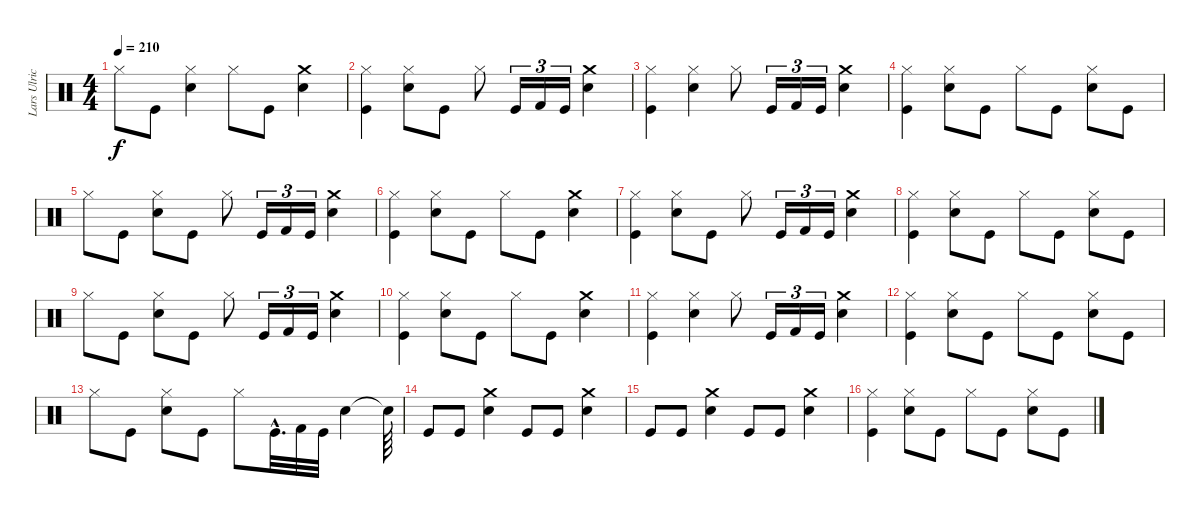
\track ("Lars Ulrich (Drums)" "Lars Ulric") {instrument percussion}
\staff {score}
\articulation defaults
\ts (4 4)
\tempo 210
\clef neutral
\ks c "Hi-Hat (closed)".8{dy f} "Kick (hit)".8
("Snare (hit) 2" "Hi-Hat (closed)").4 "Hi-Hat (closed)".8 "Kick (hit)".8 ("Crash medium (hit)" "Snare (hit) 2").4 |
("Kick (hit)" "Hi-Hat (closed)").4 ("Snare (hit) 2" "Hi-Hat (closed)").8 "Kick (hit)".8 "Hi-Hat (closed)".8 "Kick (hit)".16{tu (3 2)} "Kick (hit) 2".16{tu (3 2)} "Kick (hit)".16{tu (3 2)} ("Crash medium (hit)" "Snare (hit) 2").4 |
("Hi-Hat (closed)" "Kick (hit)").4 ("Snare (hit) 2" "Hi-Hat (closed)").4 "Hi-Hat (closed)".8 "Kick (hit)".16{tu (3 2)} "Kick (hit) 2".16{tu (3 2)} "Kick (hit)".16{tu (3 2)} ("Crash medium (hit)" "Snare (hit) 2").4 |
("Hi-Hat (closed)" "Kick (hit)").4 ("Snare (hit) 2" "Hi-Hat (closed)").8 "Kick (hit)".8 "Hi-Hat (closed)".8 "Kick (hit)".8 ("Snare (hit) 2" "Hi-Hat (closed)").8 "Kick (hit)".8 |
"Hi-Hat (closed)".8 "Kick (hit)".8 ("Snare (hit) 2" "Hi-Hat (closed)").8 "Kick (hit)".8 "Hi-Hat (closed)".8 "Kick (hit)".16{tu (3 2)} "Kick (hit) 2".16{tu (3 2)} "Kick (hit)".16{tu (3 2)} ("Crash medium (hit)" "Snare (hit) 2").4 |
("Hi-Hat (closed)" "Kick (hit)").4 ("Snare (hit) 2" "Hi-Hat (closed)").8 "Kick (hit)".8 "Hi-Hat (closed)".8 "Kick (hit)".8 ("Crash medium (hit)" "Snare (hit) 2").4 |
("Kick (hit)" "Hi-Hat (closed)").4 ("Snare (hit) 2" "Hi-Hat (closed)").8 "Kick (hit)".8 "Hi-Hat (closed)".8 "Kick (hit)".16{tu (3 2)} "Kick (hit) 2".16{tu (3 2)} "Kick (hit)".16{tu (3 2)} ("Crash medium (hit)" "Snare (hit) 2").4 |
("Hi-Hat (closed)" "Kick (hit)").4 ("Snare (hit) 2" "Hi-Hat (closed)").8 "Kick (hit)".8 "Hi-Hat (closed)".8 "Kick (hit)".8 ("Snare (hit) 2" "Hi-Hat (closed)").8 "Kick (hit)".8 |
"Hi-Hat (closed)".8 "Kick (hit)".8 ("Snare (hit) 2" "Hi-Hat (closed)").8 "Kick (hit)".8 "Hi-Hat (closed)".8 "Kick (hit)".16{tu (3 2)} "Kick (hit) 2".16{tu (3 2)} "Kick (hit)".16{tu (3 2)} ("Crash medium (hit)" "Snare (hit) 2").4 |
("Hi-Hat (closed)" "Kick (hit)").4 ("Snare (hit) 2" "Hi-Hat (closed)").8 "Kick (hit)".8 "Hi-Hat (closed)".8 "Kick (hit)".8 ("Crash medium (hit)" "Snare (hit) 2").4 |
("Hi-Hat (closed)" "Kick (hit)").4 ("Snare (hit) 2" "Hi-Hat (closed)").4 "Hi-Hat (closed)".8 "Kick (hit)".16{tu (3 2)} "Kick (hit) 2".16{tu (3 2)} "Kick (hit)".16{tu (3 2)} ("Crash medium (hit)" "Snare (hit) 2").4 |
("Hi-Hat (closed)" "Kick (hit)").4 ("Hi-Hat (closed)" "Snare (hit) 2").8 "Kick (hit)".8 "Hi-Hat (closed)".8 "Kick (hit)".8 ("Snare (hit) 2" "Hi-Hat (closed)").8 "Kick (hit)".8 |
"Hi-Hat (closed)".8 "Kick (hit)".8 ("Snare (hit) 2" "Hi-Hat (closed)").8 "Kick (hit)".8 "Hi-Hat (closed)".8 "Kick (hit)"{hac}.32{d} "Kick (hit) 2".32 "Kick (hit)".32 "Snare (hit) 2".4 "Snare (hit)"{t}.64 |
"Kick (hit)".8 "Kick (hit)".8 ("Crash medium (hit)" "Snare (hit) 2").4 "Kick (hit)".8 "Kick (hit)".8 ("Snare (hit) 2" "Crash medium (hit)").4 |
"Kick (hit)".8 "Kick (hit)".8 ("Snare (hit) 2" "Crash medium (hit)").4 "Kick (hit)".8 "Kick (hit)".8 ("Snare (hit) 2" "Crash medium (hit)").4 |
("Hi-Hat (closed)" "Kick (hit)").4 ("Snare (hit) 2" "Hi-Hat (closed)").8 "Kick (hit)".8 "Hi-Hat (closed)".8 "Kick (hit)".8 ("Snare (hit) 2" "Hi-Hat (closed)").8 "Kick (hit)".8
